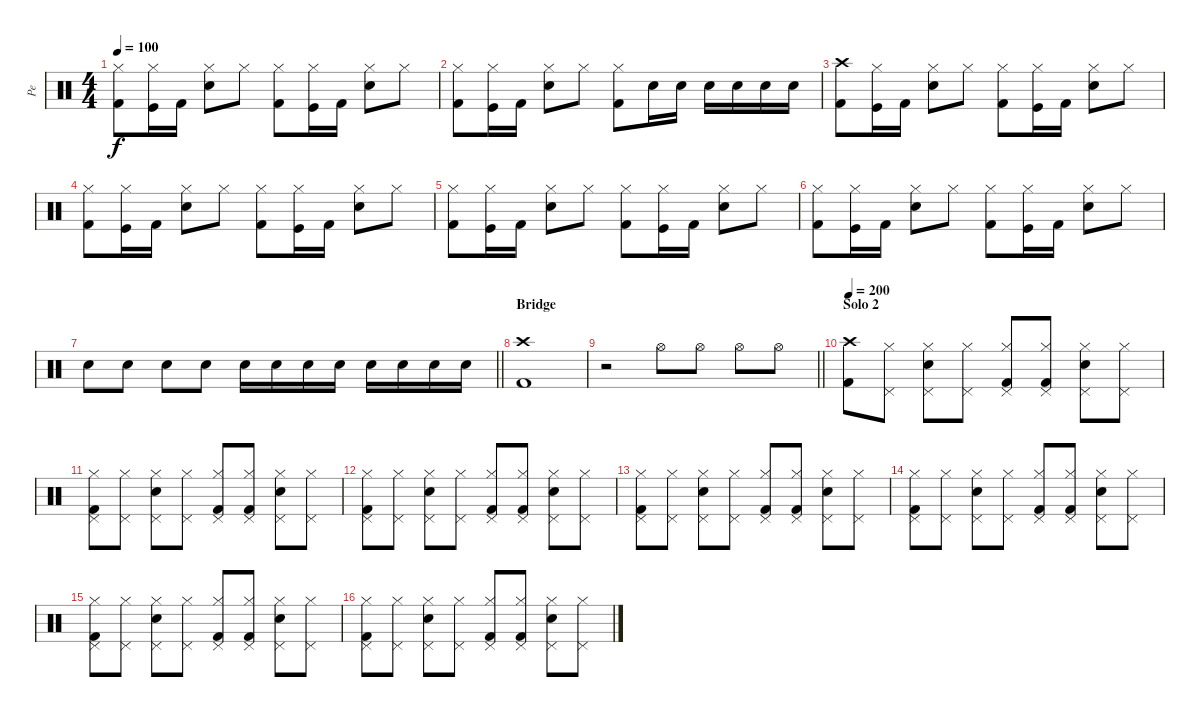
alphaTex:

\track ("Pe" "Pe") {instrument percussion}
\staff {score}
\articulation defaults
\ts (4 4)
\tempo 100
\clef neutral
\ks c
("Kick (hit) 2" "Hi-Hat (closed)").8{dy f} ("Kick (hit)" "Hi-Hat (closed)").16 "Kick (hit) 2".16 ("Electric Snare (hit)" "Hi-Hat (closed)").8 "Hi-Hat (closed)".8 ("Kick (hit) 2" "Hi-Hat (closed)").8 ("Kick (hit)" "Hi-Hat (closed)").16 "Kick (hit) 2".16 ("Electric Snare (hit)" "Hi-Hat (closed)").8 "Hi-Hat (closed)".8 |
("Kick (hit) 2" "Hi-Hat (closed)").8 ("Kick (hit)" "Hi-Hat (closed)").16 "Kick (hit) 2".16 ("Electric Snare (hit)" "Hi-Hat (closed)").8 "Hi-Hat (closed)".8 ("Kick (hit) 2" "Hi-Hat (closed)").8 "Electric Snare (hit)".16 "Electric Snare (hit)".16 "Electric Snare (hit)".16 "Electric Snare (hit)".16 "Electric Snare (hit)".16 "Electric Snare (hit)".16 |
("Kick (hit) 2" "Crash high (hit)").8 ("Kick (hit)" "Hi-Hat (closed)").16 "Kick (hit) 2".16 ("Electric Snare (hit)" "Hi-Hat (closed)").8 "Hi-Hat (closed)".8 ("Kick (hit) 2" "Hi-Hat (closed)").8 ("Kick (hit)" "Hi-Hat (closed)").16 "Kick (hit) 2".16 ("Electric Snare (hit)" "Hi-Hat (closed)").8 "Hi-Hat (closed)".8 |
("Kick (hit) 2" "Hi-Hat (closed)").8 ("Kick (hit)" "Hi-Hat (closed)").16 "Kick (hit) 2".16 ("Electric Snare (hit)" "Hi-Hat (closed)").8 "Hi-Hat (closed)".8 ("Kick (hit) 2" "Hi-Hat (closed)").8 ("Kick (hit)" "Hi-Hat (closed)").16 "Kick (hit) 2".16 ("Electric Snare (hit)" "Hi-Hat (closed)").8 "Hi-Hat (closed)".8 |
("Kick (hit) 2" "Hi-Hat (closed)").8 ("Kick (hit)" "Hi-Hat (closed)").16 "Kick (hit) 2".16 ("Electric Snare (hit)" "Hi-Hat (closed)").8 "Hi-Hat (closed)".8 ("Kick (hit) 2" "Hi-Hat (closed)").8 ("Kick (hit)" "Hi-Hat (closed)").16 "Kick (hit) 2".16 ("Electric Snare (hit)" "Hi-Hat (closed)").8 "Hi-Hat (closed)".8 |
("Kick (hit) 2" "Hi-Hat (closed)").8 ("Kick (hit)" "Hi-Hat (closed)").16 "Kick (hit) 2".16 ("Electric Snare (hit)" "Hi-Hat (closed)").8 "Hi-Hat (closed)".8 ("Kick (hit) 2" "Hi-Hat (closed)").8 ("Kick (hit)" "Hi-Hat (closed)").16 "Kick (hit) 2".16 ("Electric Snare (hit)" "Hi-Hat (closed)").8 "Hi-Hat (closed)".8 |
\barLineRight lightlight "Electric Snare (hit)".8 "Electric Snare (hit)".8 "Electric Snare (hit)".8 "Electric Snare (hit)".8 "Electric Snare (hit)".16 "Electric Snare (hit)".16 "Electric Snare (hit)".16 "Electric Snare (hit)".16 "Electric Snare (hit)".16 "Electric Snare (hit)".16 "Electric Snare (hit)".16 "Electric Snare (hit)".16
|
\section ("" "Bridge")
("Kick (hit) 2" "Crash high (hit)").1 |
\barLineRight lightlight
r.2 "Hi-Hat (open)".8 "Hi-Hat (open)".8 "Hi-Hat (open)".8 "Hi-Hat (open)".8 |
\section ("" "Solo 2")
\tempo 200
("Kick (hit) 2" "Crash high (hit)").8 ("Hi-Hat (closed)" "Pedal Hi-Hat (hit)").8 ("Electric Snare (hit)" "Hi-Hat (closed)" "Pedal Hi-Hat (hit)").8 ("Hi-Hat (closed)" "Pedal Hi-Hat (hit)").8 ("Kick (hit) 2" "Hi-Hat (closed)" "Pedal Hi-Hat (hit)").8 ("Kick (hit) 2" "Hi-Hat (closed)" "Pedal Hi-Hat (hit)").8 ("Electric Snare (hit)" "Hi-Hat (closed)" "Pedal Hi-Hat (hit)").8 ("Hi-Hat (closed)" "Pedal Hi-Hat (hit)").8 |
("Kick (hit) 2" "Hi-Hat (closed)" "Pedal Hi-Hat (hit)").8 ("Hi-Hat (closed)" "Pedal Hi-Hat (hit)").8 ("Electric Snare (hit)" "Hi-Hat (closed)" "Pedal Hi-Hat (hit)").8 ("Hi-Hat (closed)" "Pedal Hi-Hat (hit)").8 ("Kick (hit) 2" "Hi-Hat (closed)" "Pedal Hi-Hat (hit)").8 ("Kick (hit) 2" "Hi-Hat (closed)" "Pedal Hi-Hat (hit)").8 ("Electric Snare (hit)" "Hi-Hat (closed)" "Pedal Hi-Hat (hit)").8 ("Hi-Hat (closed)" "Pedal Hi-Hat (hit)").8 |
("Kick (hit) 2" "Hi-Hat (closed)" "Pedal Hi-Hat (hit)").8 ("Hi-Hat (closed)" "Pedal Hi-Hat (hit)").8 ("Electric Snare (hit)" "Hi-Hat (closed)" "Pedal Hi-Hat (hit)").8 ("Hi-Hat (closed)" "Pedal Hi-Hat (hit)").8 ("Kick (hit) 2" "Hi-Hat (closed)" "Pedal Hi-Hat (hit)").8 ("Kick (hit) 2" "Hi-Hat (closed)" "Pedal Hi-Hat (hit)").8 ("Electric Snare (hit)" "Hi-Hat (closed)" "Pedal Hi-Hat (hit)").8 ("Hi-Hat (closed)" "Pedal Hi-Hat (hit)").8 |
("Kick (hit) 2" "Hi-Hat (closed)" "Pedal Hi-Hat (hit)").8 ("Hi-Hat (closed)" "Pedal Hi-Hat (hit)").8 ("Electric Snare (hit)" "Hi-Hat (closed)" "Pedal Hi-Hat (hit)").8 ("Hi-Hat (closed)" "Pedal Hi-Hat (hit)").8 ("Kick (hit) 2" "Hi-Hat (closed)" "Pedal Hi-Hat (hit)").8 ("Kick (hit) 2" "Hi-Hat (closed)" "Pedal Hi-Hat (hit)").8 ("Electric Snare (hit)" "Hi-Hat (closed)" "Pedal Hi-Hat (hit)").8 ("Hi-Hat (closed)" "Pedal Hi-Hat (hit)").8 |
("Kick (hit) 2" "Hi-Hat (closed)" "Pedal Hi-Hat (hit)").8 ("Hi-Hat (closed)" "Pedal Hi-Hat (hit)").8 ("Electric Snare (hit)" "Hi-Hat (closed)" "Pedal Hi-Hat (hit)").8 ("Hi-Hat (closed)" "Pedal Hi-Hat (hit)").8 ("Kick (hit) 2" "Hi-Hat (closed)" "Pedal Hi-Hat (hit)").8 ("Kick (hit) 2" "Hi-Hat (closed)" "Pedal Hi-Hat (hit)").8 ("Electric Snare (hit)" "Hi-Hat (closed)" "Pedal Hi-Hat (hit)").8 ("Hi-Hat (closed)" "Pedal Hi-Hat (hit)").8 |
("Kick (hit) 2" "Hi-Hat (closed)" "Pedal Hi-Hat (hit)").8 ("Hi-Hat (closed)" "Pedal Hi-Hat (hit)").8 ("Electric Snare (hit)" "Hi-Hat (closed)" "Pedal Hi-Hat (hit)").8 ("Hi-Hat (closed)" "Pedal Hi-Hat (hit)").8 ("Kick (hit) 2" "Hi-Hat (closed)" "Pedal Hi-Hat (hit)").8 ("Kick (hit) 2" "Hi-Hat (closed)" "Pedal Hi-Hat (hit)").8 ("Electric Snare (hit)" "Hi-Hat (closed)" "Pedal Hi-Hat (hit)").8 ("Hi-Hat (closed)" "Pedal Hi-Hat (hit)").8 |
("Kick (hit) 2" "Hi-Hat (closed)" "Pedal Hi-Hat (hit)").8 ("Hi-Hat (closed)" "Pedal Hi-Hat (hit)").8 ("Electric Snare (hit)" "Hi-Hat (closed)" "Pedal Hi-Hat (hit)").8 ("Hi-Hat (closed)" "Pedal Hi-Hat (hit)").8 ("Kick (hit) 2" "Hi-Hat (closed)" "Pedal Hi-Hat (hit)").8 ("Kick (hit) 2" "Hi-Hat (closed)" "Pedal Hi-Hat (hit)").8 ("Electric Snare (hit)" "Hi-Hat (closed)" "Pedal Hi-Hat (hit)").8 ("Hi-Hat (closed)" "Pedal Hi-Hat (hit)").8
